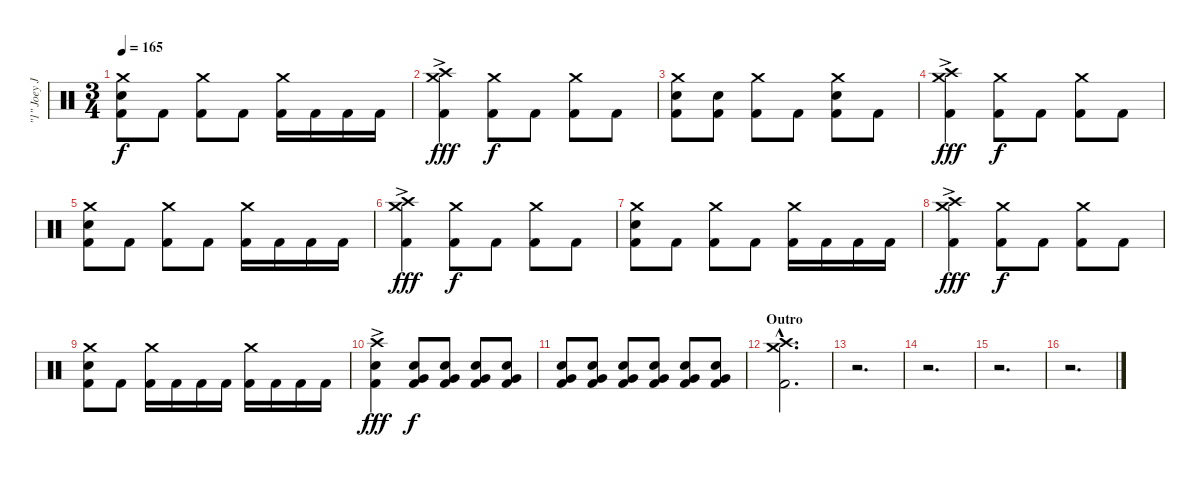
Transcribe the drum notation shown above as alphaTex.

\track ("\"1\" Joey Jordison (Drums)" "\"1\" Joey J") {instrument percussion}
\staff {score}
\articulation defaults
\ts (3 4)
\tempo 165
\clef neutral
\ks c
("Crash medium (hit)" "Electric Snare (hit)" "Kick (hit) 2").8{dy f} "Kick (hit) 2".8 ("Crash medium (hit)" "Kick (hit) 2").8 "Kick (hit) 2".8 ("Crash medium (hit)" "Kick (hit) 2").16 "Kick (hit) 2".16 "Kick (hit) 2".16 "Kick (hit) 2".16 |
("Crash high (hit)"{ac} "Crash medium (hit)" "Kick (hit) 2").4{dy fff} ("Crash medium (hit)" "Kick (hit) 2").8{dy f} "Kick (hit) 2".8 ("Crash medium (hit)" "Kick (hit) 2").8 "Kick (hit) 2".8 |
("Crash medium (hit)" "Electric Snare (hit)" "Kick (hit) 2").8 ("Electric Snare (hit)" "Kick (hit) 2").8 ("Crash medium (hit)" "Kick (hit) 2").8 "Kick (hit) 2".8 ("Crash medium (hit)" "Electric Snare (hit)" "Kick (hit) 2").8 "Kick (hit) 2".8 |
("Crash high (hit)"{ac} "Crash medium (hit)" "Kick (hit) 2").4{dy fff} ("Crash medium (hit)" "Kick (hit) 2").8{dy f} "Kick (hit) 2".8 ("Crash medium (hit)" "Kick (hit) 2").8 "Kick (hit) 2".8 |
("Crash medium (hit)" "Electric Snare (hit)" "Kick (hit) 2").8 "Kick (hit) 2".8 ("Crash medium (hit)" "Kick (hit) 2").8 "Kick (hit) 2".8 ("Crash medium (hit)" "Kick (hit) 2").16 "Kick (hit) 2".16 "Kick (hit) 2".16 "Kick (hit) 2".16 |
("Crash high (hit)"{ac} "Crash medium (hit)" "Kick (hit) 2").4{dy fff} ("Crash medium (hit)" "Kick (hit) 2").8{dy f} "Kick (hit) 2".8 ("Crash medium (hit)" "Kick (hit) 2").8 "Kick (hit) 2".8 |
("Crash medium (hit)" "Electric Snare (hit)" "Kick (hit) 2").8 "Kick (hit) 2".8 ("Crash medium (hit)" "Kick (hit) 2").8 "Kick (hit) 2".8 ("Crash medium (hit)" "Kick (hit) 2").16 "Kick (hit) 2".16 "Kick (hit) 2".16 "Kick (hit) 2".16 |
("Crash high (hit)"{ac} "Crash medium (hit)" "Kick (hit) 2").4{dy fff} ("Crash medium (hit)" "Kick (hit) 2").8{dy f} "Kick (hit) 2".8 ("Crash medium (hit)" "Kick (hit) 2").8 "Kick (hit) 2".8 |
("Crash medium (hit)" "Electric Snare (hit)" "Kick (hit) 2").8 "Kick (hit) 2".8 ("Crash medium (hit)" "Kick (hit) 2").16 "Kick (hit) 2".16 "Kick (hit) 2".16 "Kick (hit) 2".16 ("Crash medium (hit)" "Kick (hit) 2").16 "Kick (hit) 2".16 "Kick (hit) 2".16 "Kick (hit) 2".16 |
("Crash high (hit)"{ac} "Electric Snare (hit)" "Kick (hit) 2").4{dy fff} ("Electric Snare (hit)" "Very Low Tom (hit)" "Kick (hit) 2").8{dy f} ("Electric Snare (hit)" "Very Low Tom (hit)" "Kick (hit) 2").8 ("Electric Snare (hit)" "Very Low Tom (hit)" "Kick (hit) 2").8 ("Electric Snare (hit)" "Very Low Tom (hit)" "Kick (hit) 2").8 |
("Electric Snare (hit)" "Very Low Tom (hit)" "Kick (hit) 2").8 ("Electric Snare (hit)" "Very Low Tom (hit)" "Kick (hit) 2").8 ("Electric Snare (hit)" "Very Low Tom (hit)" "Kick (hit) 2").8 ("Electric Snare (hit)" "Very Low Tom (hit)" "Kick (hit) 2").8 ("Electric Snare (hit)" "Very Low Tom (hit)" "Kick (hit) 2").8 ("Electric Snare (hit)" "Very Low Tom (hit)" "Kick (hit) 2").8 |
\section ("" "Outro")
("Crash high (hit)"{hac} "Crash medium (hit)"{hac} "Kick (hit) 2"{hac}).2{d} |
r.2{d} |
r.2{d} |
r.2{d} |
r.2{d}
